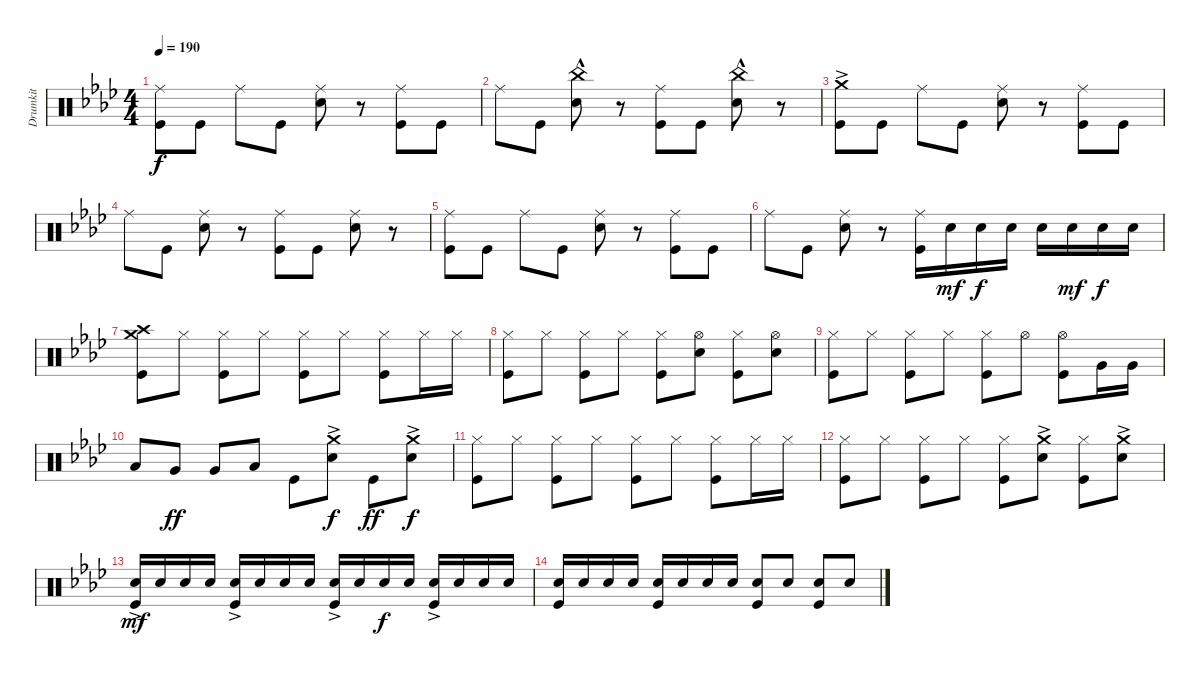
\track ("Drumkit" "Drumkit") {instrument percussion}
\staff {score}
\articulation defaults
\ts (4 4)
\tempo 190
\clef neutral
\ks ab
("Kick (hit)" "Ride (middle)").8{dy f} "Kick (hit)".8 "Ride (middle)".8 "Kick (hit)".8 ("Snare (hit) 2" "Ride (middle)").8 r.8 ("Kick (hit)" "Ride (middle)").8 "Kick (hit)".8 |
"Ride (middle)".8 "Kick (hit)".8 ("Snare (hit) 2" "China (hit)"{hac}).8 r.8 ("Kick (hit)" "Ride (middle)").8 "Kick (hit)".8 ("Snare (hit) 2" "China (hit)"{hac}).8 r.8 |
("Kick (hit)" "Crash medium (hit)"{ac}).8 "Kick (hit)".8 "Ride (middle)".8 "Kick (hit)".8 ("Snare (hit) 2" "Ride (middle)").8 r.8 ("Kick (hit)" "Ride (middle)").8 "Kick (hit)".8 |
"Ride (middle)".8 "Kick (hit)".8 ("Snare (hit) 2" "Ride (middle)").8 r.8 ("Kick (hit)" "Ride (middle)").8 "Kick (hit)".8 ("Snare (hit) 2" "Ride (middle)").8 r.8 |
("Kick (hit)" "Ride (middle)").8 "Kick (hit)".8 "Ride (middle)".8 "Kick (hit)".8 ("Snare (hit) 2" "Ride (middle)").8 r.8 ("Kick (hit)" "Ride (middle)").8 "Kick (hit)".8 |
"Ride (middle)".8 "Kick (hit)".8 ("Snare (hit) 2" "Ride (middle)").8 r.8 ("Ride (middle)" "Kick (hit)").16 "Snare (hit) 2".16{dy mf} "Snare (hit) 2".16{dy f} "Snare (hit) 2".16 "Snare (hit) 2".16 "Snare (hit) 2".16{dy mf} "Snare (hit) 2".16{dy f} "Snare (hit) 2".16 |
("Kick (hit)" "Crash medium (hit)" "Crash high (hit)").8 "Hi-Hat (closed)".8 ("Hi-Hat (closed)" "Kick (hit)").8 "Hi-Hat (closed)".8 ("Hi-Hat (closed)" "Kick (hit)").8 "Hi-Hat (closed)".8 ("Hi-Hat (closed)" "Kick (hit)").8 "Hi-Hat (closed)".16 "Hi-Hat (closed)".16 |
("Kick (hit)" "Hi-Hat (closed)").8 "Hi-Hat (closed)".8 ("Hi-Hat (closed)" "Kick (hit)").8 "Hi-Hat (closed)".8 ("Hi-Hat (closed)" "Kick (hit)").8 ("Hi-Hat (open)" "Snare (hit) 2").8 ("Hi-Hat (closed)" "Kick (hit)").8 ("Hi-Hat (open)" "Snare (hit) 2").8 |
("Kick (hit)" "Hi-Hat (closed)").8 "Hi-Hat (closed)".8 ("Hi-Hat (closed)" "Kick (hit)").8 "Hi-Hat (closed)".8 ("Hi-Hat (closed)" "Kick (hit)").8 "Hi-Hat (open)".8 ("Hi-Hat (open)" "Kick (hit)").8 "Very Low Tom (hit)".16 "Very Low Tom (hit)".16 |
"Low Tom (hit)".8 "Very Low Tom (hit)".8{dy ff} "Very Low Tom (hit)".8 "Low Floor Tom (hit)".8 "Kick (hit)".8 ("Snare (hit) 2" "Crash medium (hit)"{ac}).8{dy f} "Kick (hit)".8{dy ff} ("Crash medium (hit)"{ac} "Snare (hit) 2").8{dy f} |
("Kick (hit)" "Hi-Hat (closed)").8 "Hi-Hat (closed)".8 ("Hi-Hat (closed)" "Kick (hit)").8 "Hi-Hat (closed)".8 ("Hi-Hat (closed)" "Kick (hit)").8 "Hi-Hat (closed)".8 ("Hi-Hat (closed)" "Kick (hit)").8 "Hi-Hat (closed)".16 "Hi-Hat (closed)".16 |
("Kick (hit)" "Hi-Hat (closed)").8 "Hi-Hat (closed)".8 ("Hi-Hat (closed)" "Kick (hit)").8 "Hi-Hat (closed)".8 ("Hi-Hat (closed)" "Kick (hit)").8 ("Snare (hit) 2" "Crash medium (hit)"{ac}).8 ("Hi-Hat (closed)" "Kick (hit)").8 ("Snare (hit) 2" "Crash medium (hit)"{ac}).8 |
("Snare (hit) 2" "Kick (hit)"{ac}).16{dy mf} "Snare (hit) 2".16 "Snare (hit) 2".16 "Snare (hit) 2".16 ("Snare (hit) 2" "Kick (hit)"{ac}).16 "Snare (hit) 2".16 "Snare (hit) 2".16 "Snare (hit) 2".16 ("Snare (hit) 2" "Kick (hit)"{ac}).16 "Snare (hit) 2".16 "Snare (hit) 2".16{dy f} "Snare (hit) 2".16 ("Snare (hit) 2" "Kick (hit)"{ac}).16 "Snare (hit) 2".16 "Snare (hit) 2".16 "Snare (hit) 2".16 |
("Snare (hit) 2" "Kick (hit)").16 "Snare (hit) 2".16 "Snare (hit) 2".16 "Snare (hit) 2".16 ("Snare (hit) 2" "Kick (hit)").16 "Snare (hit) 2".16 "Snare (hit) 2".16 "Snare (hit) 2".16 ("Snare (hit) 2" "Kick (hit)").8 "Snare (hit) 2".8 ("Snare (hit) 2" "Kick (hit)").8 "Snare (hit) 2".8
